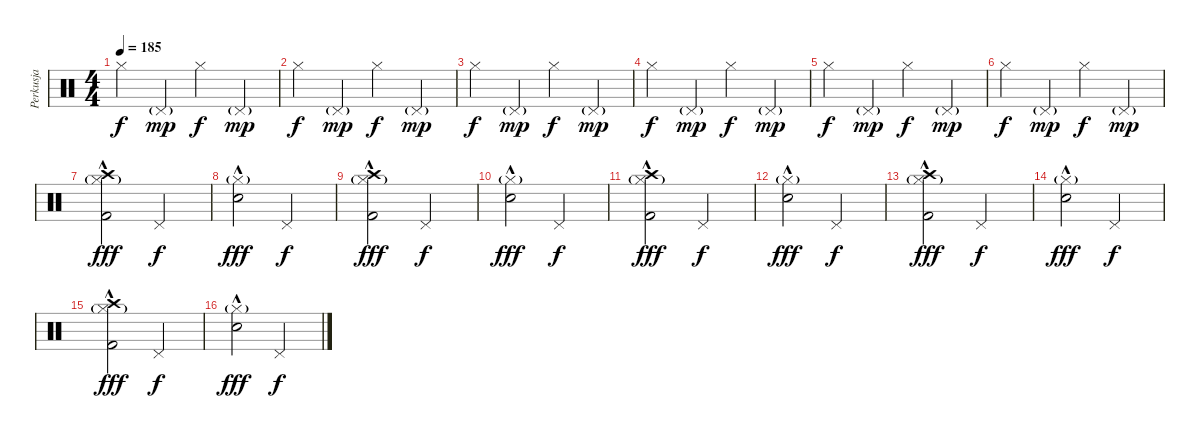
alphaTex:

\track ("Perkusja" "Perkusja") {instrument percussion}
\staff {score}
\articulation defaults
\ts (4 4)
\tempo 185
\clef neutral
\ks c "Hi-Hat (closed)".4{dy f} "Pedal Hi-Hat (hit)"{g}.4{dy mp} "Hi-Hat (closed)".4{dy f} "Pedal Hi-Hat (hit)"{g}.4{dy mp}
|
"Hi-Hat (closed)".4{dy f} "Pedal Hi-Hat (hit)"{g}.4{dy mp} "Hi-Hat (closed)".4{dy f} "Pedal Hi-Hat (hit)"{g}.4{dy mp} |
"Hi-Hat (closed)".4{dy f} "Pedal Hi-Hat (hit)"{g}.4{dy mp} "Hi-Hat (closed)".4{dy f} "Pedal Hi-Hat (hit)"{g}.4{dy mp} |
"Hi-Hat (closed)".4{dy f} "Pedal Hi-Hat (hit)"{g}.4{dy mp} "Hi-Hat (closed)".4{dy f} "Pedal Hi-Hat (hit)"{g}.4{dy mp} |
"Hi-Hat (closed)".4{dy f} "Pedal Hi-Hat (hit)"{g}.4{dy mp} "Hi-Hat (closed)".4{dy f} "Pedal Hi-Hat (hit)"{g}.4{dy mp} |
"Hi-Hat (closed)".4{dy f} "Pedal Hi-Hat (hit)"{g}.4{dy mp} "Hi-Hat (closed)".4{dy f} "Pedal Hi-Hat (hit)"{g}.4{dy mp} |
("Crash high (hit)" "Hi-Hat (closed)"{g} "Kick (hit) 2"{hac}).2{dy fff} "Pedal Hi-Hat (hit)".2{dy f} |
("Hi-Hat (closed)"{g} "Electric Snare (hit)"{hac}).2{dy fff} "Pedal Hi-Hat (hit)".2{dy f} |
("Crash high (hit)" "Hi-Hat (closed)"{g} "Kick (hit) 2"{hac}).2{dy fff} "Pedal Hi-Hat (hit)".2{dy f} |
("Hi-Hat (closed)"{g} "Electric Snare (hit)"{hac}).2{dy fff} "Pedal Hi-Hat (hit)".2{dy f} |
("Crash high (hit)" "Hi-Hat (closed)"{g} "Kick (hit) 2"{hac}).2{dy fff} "Pedal Hi-Hat (hit)".2{dy f} |
("Hi-Hat (closed)"{g} "Electric Snare (hit)"{hac}).2{dy fff} "Pedal Hi-Hat (hit)".2{dy f} |
("Crash high (hit)" "Hi-Hat (closed)"{g} "Kick (hit) 2"{hac}).2{dy fff} "Pedal Hi-Hat (hit)".2{dy f} |
("Hi-Hat (closed)"{g} "Electric Snare (hit)"{hac}).2{dy fff} "Pedal Hi-Hat (hit)".2{dy f} |
("Crash high (hit)" "Hi-Hat (closed)"{g} "Kick (hit) 2"{hac}).2{dy fff} "Pedal Hi-Hat (hit)".2{dy f} |
("Hi-Hat (closed)"{g} "Electric Snare (hit)"{hac}).2{dy fff} "Pedal Hi-Hat (hit)".2{dy f}
